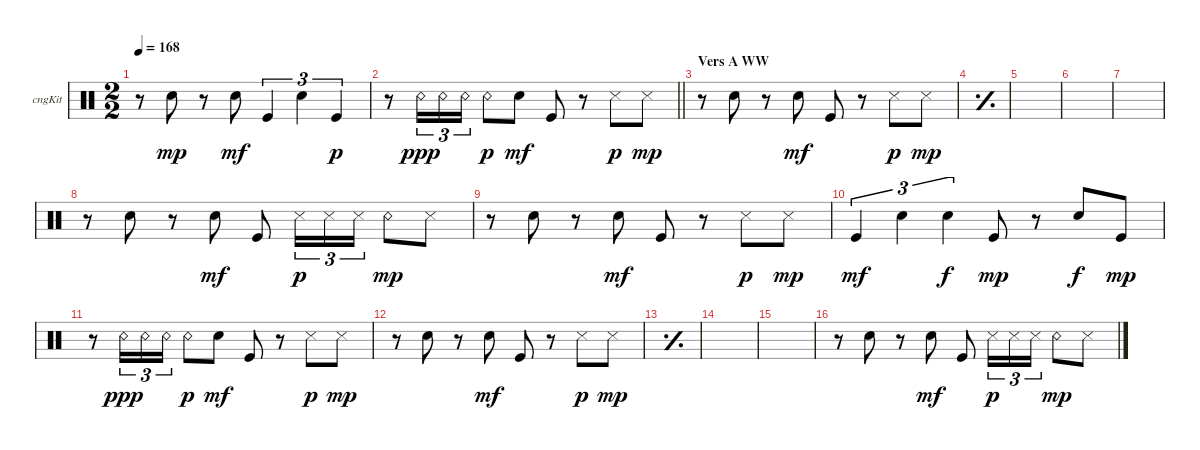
\bracketExtendMode groupsimilarinstruments
\multiTrackTrackNamePolicy hidden
\firstSystemTrackNameOrientation horizontal
\otherSystemsTrackNameOrientation horizontal
\track ("Congas" "cngKit") {instrument percussion}
\staff {score}
\articulation defaults
\ts (2 2)
\tempo 168
\clef neutral
\ks c
r.8{dy mp} "Snare (hit) 2".8 r.8 "Snare (hit) 2".8{dy mf} "Kick (hit)".4{tu (3 2)} "Snare (hit) 2".4{tu (3 2)} "Kick (hit)".4{tu (3 2) dy p} |
\barLineRight lightlight
r.8 "Snare (rim shot)".16{tu (3 2) dy ppp} "Snare (rim shot)".16{tu (3 2)} "Snare (rim shot)".16{tu (3 2)} "Snare (rim shot)".8{dy p} "Snare (hit) 2".8{dy mf} "Kick (hit)".8 r.8 "Snare (side stick) 3".8{dy p} "Snare (side stick) 3".8{dy mp} |
\section ("" "Vers A WW")
r.8 "Snare (hit) 2".8 r.8 "Snare (hit) 2".8{dy mf} "Kick (hit)".8 r.8 "Snare (side stick) 3".8{dy p} "Snare (side stick) 3".8{dy mp} |
\simile simple
|
|
|
|
\simile none
r.8 "Snare (hit) 2".8 r.8 "Snare (hit) 2".8{dy mf} "Kick (hit)".8 "Snare (side stick) 3".16{tu (3 2) dy p} "Snare (side stick) 3".16{tu (3 2)} "Snare (side stick) 3".16{tu (3 2)} "Snare (rim shot)".8{dy mp} "Snare (side stick) 3".8 |
r.8 "Snare (hit) 2".8 r.8 "Snare (hit) 2".8{dy mf} "Kick (hit)".8 r.8 "Snare (side stick) 3".8{dy p} "Snare (side stick) 3".8{dy mp} |
"Kick (hit)".4{tu (3 2) dy mf} "Snare (hit) 2".4{tu (3 2)} "Snare (hit) 2".4{tu (3 2) dy f} "Kick (hit)".8{dy mp} r.8 "Snare (hit) 2".8{dy f} "Kick (hit)".8{dy mp} |
r.8 "Snare (rim shot)".16{tu (3 2) dy ppp} "Snare (rim shot)".16{tu (3 2)} "Snare (rim shot)".16{tu (3 2)} "Snare (rim shot)".8{dy p} "Snare (hit) 2".8{dy mf} "Kick (hit)".8 r.8 "Snare (side stick) 3".8{dy p} "Snare (side stick) 3".8{dy mp} |
r.8 "Snare (hit) 2".8 r.8 "Snare (hit) 2".8{dy mf} "Kick (hit)".8 r.8 "Snare (side stick) 3".8{dy p} "Snare (side stick) 3".8{dy mp} |
\simile simple
|
|
|
\simile none
r.8 "Snare (hit) 2".8 r.8 "Snare (hit) 2".8{dy mf} "Kick (hit)".8 "Snare (side stick) 3".16{tu (3 2) dy p} "Snare (side stick) 3".16{tu (3 2)} "Snare (side stick) 3".16{tu (3 2)} "Snare (rim shot)".8{dy mp} "Snare (side stick) 3".8
